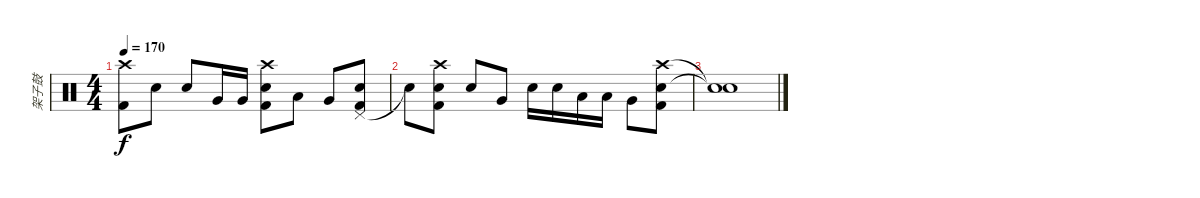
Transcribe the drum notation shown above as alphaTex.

\track ("架子鼓" "架子鼓") {instrument percussion}
\staff {score}
\articulation defaults
\ts (4 4)
\tempo 170
\clef neutral
\ks c
("Crash high (hit)" "Kick (hit) 2").8{dy f} "Snare (hit) 2".8 "Snare (hit) 2".8 "Very Low Tom (hit)".16 "Very Low Tom (hit)".16 ("Crash high (hit)" "Snare (hit) 2" "Kick (hit) 2").8 "Low Tom (hit)".8 "Very Low Tom (hit)".8 ("Pedal Hi-Hat (hit)" "Snare (hit) 2" "Kick (hit) 2").8 |
"Snare (hit)"{t}.8 ("Crash high (hit)" "Snare (hit) 2" "Kick (hit) 2").8 "Snare (hit) 2".8 "Very Low Tom (hit)".8 "Snare (hit) 2".16 "Snare (hit) 2".16 "Low Tom (hit)".16 "Low Tom (hit)".16 "Very Low Tom (hit)".8 ("Crash high (hit)" "Snare (hit) 2" "Kick (hit) 2").8 |
("Snare (hit)"{t} "Snare (hit)"{t}).1
